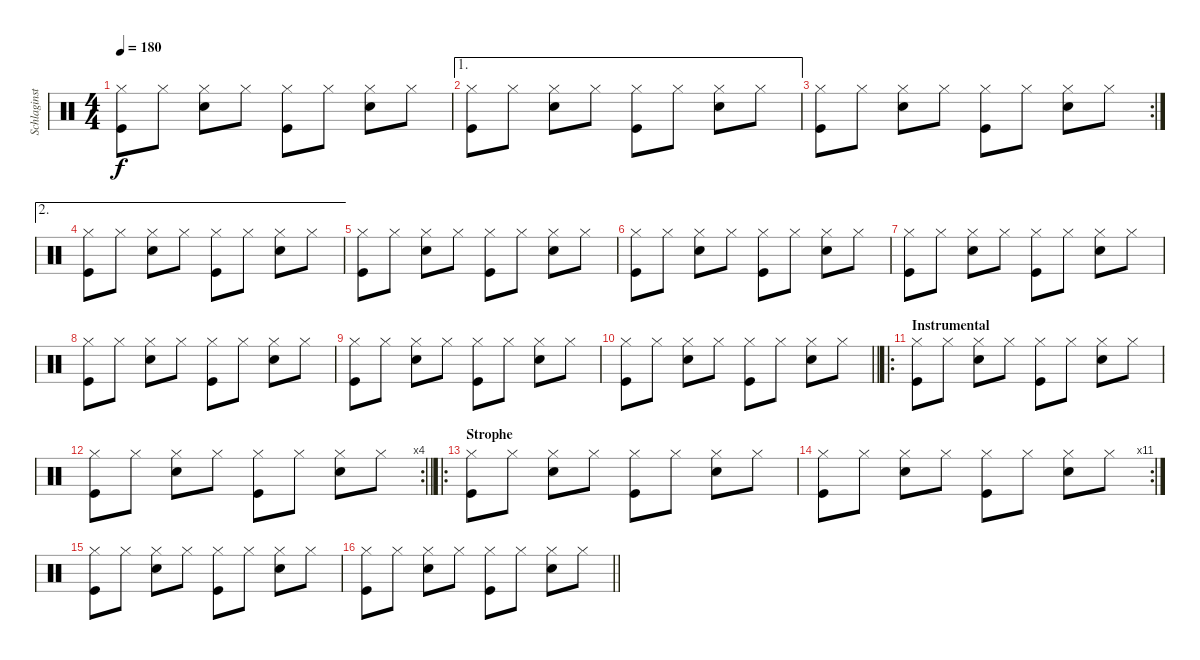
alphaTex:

\track ("Schlaginstrumente - Auswahl" "Schlaginst") {instrument percussion}
\staff {score}
\articulation defaults
\ts (4 4)
\tempo 180
\clef neutral
\ks c
("Hi-Hat (closed)" "Kick (hit)").8{dy f} "Hi-Hat (closed)".8 ("Hi-Hat (closed)" "Snare (hit) 2").8 "Hi-Hat (closed)".8 ("Hi-Hat (closed)" "Kick (hit)").8 "Hi-Hat (closed)".8 ("Hi-Hat (closed)" "Snare (hit) 2").8 "Hi-Hat (closed)".8 |
\ae 1
("Hi-Hat (closed)" "Kick (hit)").8 "Hi-Hat (closed)".8 ("Hi-Hat (closed)" "Snare (hit) 2").8 "Hi-Hat (closed)".8 ("Hi-Hat (closed)" "Kick (hit)").8 "Hi-Hat (closed)".8 ("Hi-Hat (closed)" "Snare (hit) 2").8 "Hi-Hat (closed)".8 |
\rc 2
("Hi-Hat (closed)" "Kick (hit)").8 "Hi-Hat (closed)".8 ("Hi-Hat (closed)" "Snare (hit) 2").8 "Hi-Hat (closed)".8 ("Hi-Hat (closed)" "Kick (hit)").8 "Hi-Hat (closed)".8 ("Hi-Hat (closed)" "Snare (hit) 2").8 "Hi-Hat (closed)".8 |
\ae 2
("Hi-Hat (closed)" "Kick (hit)").8 "Hi-Hat (closed)".8 ("Hi-Hat (closed)" "Snare (hit) 2").8 "Hi-Hat (closed)".8 ("Hi-Hat (closed)" "Kick (hit)").8 "Hi-Hat (closed)".8 ("Hi-Hat (closed)" "Snare (hit) 2").8 "Hi-Hat (closed)".8 |
("Hi-Hat (closed)" "Kick (hit)").8 "Hi-Hat (closed)".8 ("Hi-Hat (closed)" "Snare (hit) 2").8 "Hi-Hat (closed)".8 ("Hi-Hat (closed)" "Kick (hit)").8 "Hi-Hat (closed)".8 ("Hi-Hat (closed)" "Snare (hit) 2").8 "Hi-Hat (closed)".8 |
("Hi-Hat (closed)" "Kick (hit)").8 "Hi-Hat (closed)".8 ("Hi-Hat (closed)" "Snare (hit) 2").8 "Hi-Hat (closed)".8 ("Hi-Hat (closed)" "Kick (hit)").8 "Hi-Hat (closed)".8 ("Hi-Hat (closed)" "Snare (hit) 2").8 "Hi-Hat (closed)".8 |
("Hi-Hat (closed)" "Kick (hit)").8 "Hi-Hat (closed)".8 ("Hi-Hat (closed)" "Snare (hit) 2").8 "Hi-Hat (closed)".8 ("Hi-Hat (closed)" "Kick (hit)").8 "Hi-Hat (closed)".8 ("Hi-Hat (closed)" "Snare (hit) 2").8 "Hi-Hat (closed)".8 |
("Hi-Hat (closed)" "Kick (hit)").8 "Hi-Hat (closed)".8 ("Hi-Hat (closed)" "Snare (hit) 2").8 "Hi-Hat (closed)".8 ("Hi-Hat (closed)" "Kick (hit)").8 "Hi-Hat (closed)".8 ("Hi-Hat (closed)" "Snare (hit) 2").8 "Hi-Hat (closed)".8 |
("Hi-Hat (closed)" "Kick (hit)").8 "Hi-Hat (closed)".8 ("Hi-Hat (closed)" "Snare (hit) 2").8 "Hi-Hat (closed)".8 ("Hi-Hat (closed)" "Kick (hit)").8 "Hi-Hat (closed)".8 ("Hi-Hat (closed)" "Snare (hit) 2").8 "Hi-Hat (closed)".8 |
\barLineRight lightlight
("Hi-Hat (closed)" "Kick (hit)").8 "Hi-Hat (closed)".8 ("Hi-Hat (closed)" "Snare (hit) 2").8 "Hi-Hat (closed)".8 ("Hi-Hat (closed)" "Kick (hit)").8 "Hi-Hat (closed)".8 ("Hi-Hat (closed)" "Snare (hit) 2").8 "Hi-Hat (closed)".8 |
\ro
\section ("" "Instrumental")
("Hi-Hat (closed)" "Kick (hit)").8 "Hi-Hat (closed)".8 ("Hi-Hat (closed)" "Snare (hit) 2").8 "Hi-Hat (closed)".8 ("Hi-Hat (closed)" "Kick (hit)").8 "Hi-Hat (closed)".8 ("Hi-Hat (closed)" "Snare (hit) 2").8 "Hi-Hat (closed)".8 |
\rc 4
\barLineRight lightlight
("Hi-Hat (closed)" "Kick (hit)").8 "Hi-Hat (closed)".8 ("Hi-Hat (closed)" "Snare (hit) 2").8 "Hi-Hat (closed)".8 ("Hi-Hat (closed)" "Kick (hit)").8 "Hi-Hat (closed)".8 ("Hi-Hat (closed)" "Snare (hit) 2").8 "Hi-Hat (closed)".8 |
\ro
\section ("" "Strophe")
("Hi-Hat (closed)" "Kick (hit)").8 "Hi-Hat (closed)".8 ("Hi-Hat (closed)" "Snare (hit) 2").8 "Hi-Hat (closed)".8 ("Hi-Hat (closed)" "Kick (hit)").8 "Hi-Hat (closed)".8 ("Hi-Hat (closed)" "Snare (hit) 2").8 "Hi-Hat (closed)".8 |
\rc 11
("Hi-Hat (closed)" "Kick (hit)").8 "Hi-Hat (closed)".8 ("Hi-Hat (closed)" "Snare (hit) 2").8 "Hi-Hat (closed)".8 ("Hi-Hat (closed)" "Kick (hit)").8 "Hi-Hat (closed)".8 ("Hi-Hat (closed)" "Snare (hit) 2").8 "Hi-Hat (closed)".8 |
("Hi-Hat (closed)" "Kick (hit)").8 "Hi-Hat (closed)".8 ("Hi-Hat (closed)" "Snare (hit) 2").8 "Hi-Hat (closed)".8 ("Hi-Hat (closed)" "Kick (hit)").8 "Hi-Hat (closed)".8 ("Hi-Hat (closed)" "Snare (hit) 2").8 "Hi-Hat (closed)".8 |
\barLineRight lightlight
("Hi-Hat (closed)" "Kick (hit)").8 "Hi-Hat (closed)".8 ("Hi-Hat (closed)" "Snare (hit) 2").8 "Hi-Hat (closed)".8 ("Hi-Hat (closed)" "Kick (hit)").8 "Hi-Hat (closed)".8 ("Hi-Hat (closed)" "Snare (hit) 2").8 "Hi-Hat (closed)".8
